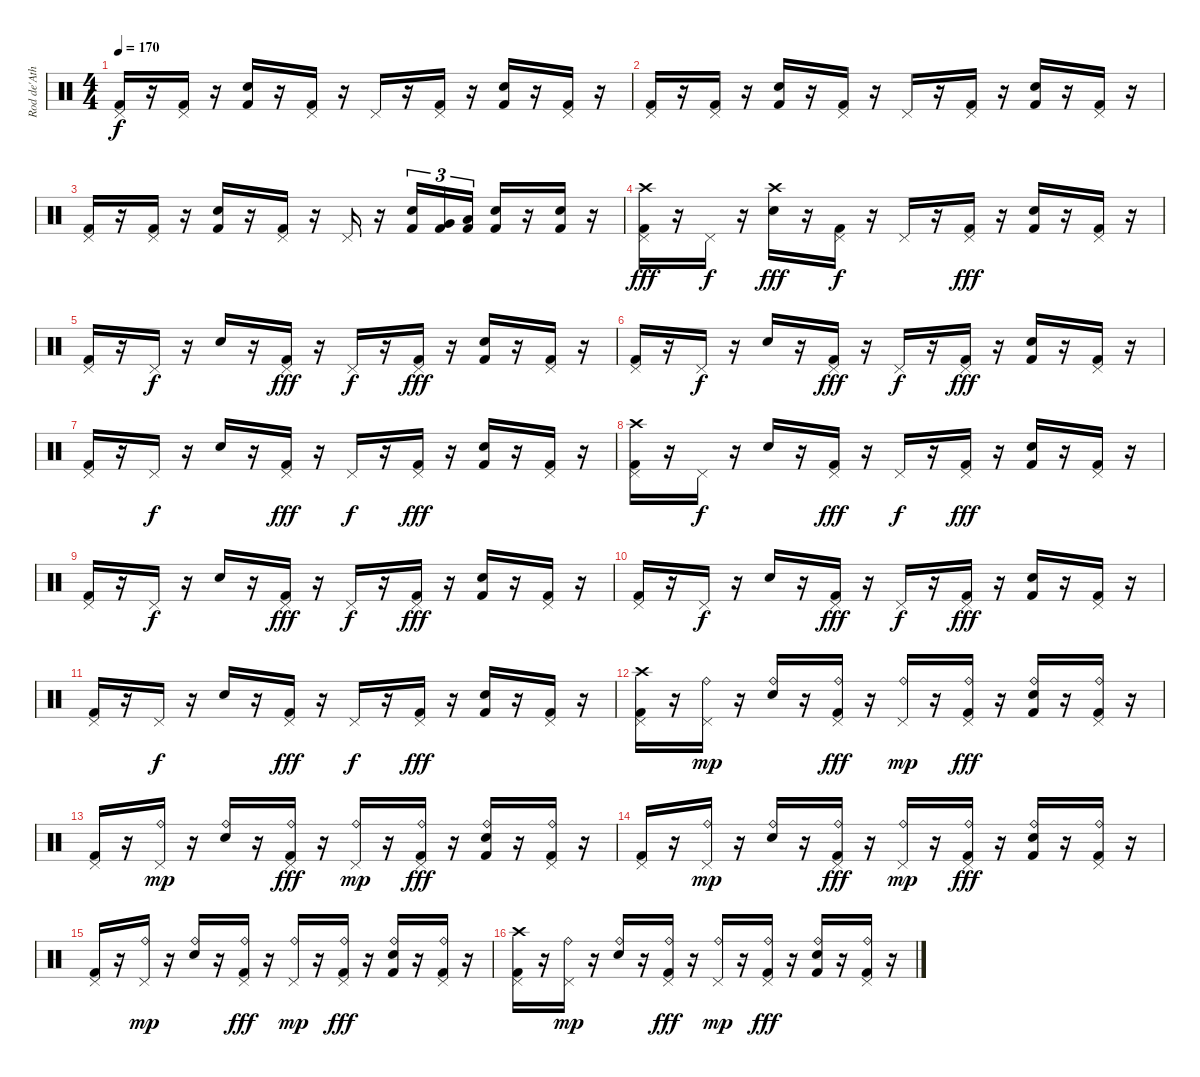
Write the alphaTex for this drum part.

\track ("Rod de'Ath" "Rod de'Ath") {instrument percussion}
\staff {score}
\articulation defaults
\ts (4 4)
\tempo 170
\clef neutral
\ks c
("Pedal Hi-Hat (hit)" "Kick (hit) 2").16{dy f} r.16 ("Pedal Hi-Hat (hit)" "Kick (hit) 2").16 r.16 ("Snare (hit) 2" "Kick (hit) 2").16 r.16 ("Pedal Hi-Hat (hit)" "Kick (hit) 2").16 r.16 "Pedal Hi-Hat (hit)".16 r.16 ("Pedal Hi-Hat (hit)" "Kick (hit) 2").16 r.16 ("Electric Snare (hit)" "Kick (hit) 2").16 r.16 ("Pedal Hi-Hat (hit)" "Kick (hit) 2").16 r.16 |
("Pedal Hi-Hat (hit)" "Kick (hit) 2").16 r.16 ("Pedal Hi-Hat (hit)" "Kick (hit) 2").16 r.16 ("Snare (hit) 2" "Kick (hit) 2").16 r.16 ("Pedal Hi-Hat (hit)" "Kick (hit) 2").16 r.16 "Pedal Hi-Hat (hit)".16 r.16 ("Pedal Hi-Hat (hit)" "Kick (hit) 2").16 r.16 ("Electric Snare (hit)" "Kick (hit) 2").16 r.16 ("Pedal Hi-Hat (hit)" "Kick (hit) 2").16 r.16 |
("Pedal Hi-Hat (hit)" "Kick (hit) 2").16 r.16 ("Pedal Hi-Hat (hit)" "Kick (hit) 2").16 r.16 ("Snare (hit) 2" "Kick (hit) 2").16 r.16 ("Pedal Hi-Hat (hit)" "Kick (hit) 2").16 r.16 "Pedal Hi-Hat (hit)".16 r.16 ("Snare (hit) 2" "Kick (hit) 2").16{tu (3 2)} ("Very Low Tom (hit)" "Kick (hit) 2").16{tu (3 2)} ("Low Tom (hit)" "Kick (hit) 2").16{tu (3 2)} ("Electric Snare (hit)" "Kick (hit) 2").16 r.16 ("Electric Snare (hit)" "Kick (hit) 2").16 r.16 |
("Crash high (hit)" "Pedal Hi-Hat (hit)" "Kick (hit) 2").16{dy fff} r.16 "Pedal Hi-Hat (hit)".16{dy f} r.16 ("Crash high (hit)" "Snare (hit) 2").16{dy fff} r.16 ("Pedal Hi-Hat (hit)" "Kick (hit) 2").16{dy f} r.16 "Pedal Hi-Hat (hit)".16 r.16 ("Pedal Hi-Hat (hit)" "Kick (hit) 2").16{dy fff} r.16 ("Snare (hit) 2" "Kick (hit) 2").16 r.16 ("Pedal Hi-Hat (hit)" "Kick (hit) 2").16 r.16 |
("Pedal Hi-Hat (hit)" "Kick (hit) 2").16 r.16 "Pedal Hi-Hat (hit)".16{dy f} r.16 "Snare (hit) 2".16 r.16 ("Pedal Hi-Hat (hit)" "Kick (hit) 2").16{dy fff} r.16 "Pedal Hi-Hat (hit)".16{dy f} r.16 ("Pedal Hi-Hat (hit)" "Kick (hit) 2").16{dy fff} r.16 ("Electric Snare (hit)" "Kick (hit) 2").16 r.16 ("Pedal Hi-Hat (hit)" "Kick (hit) 2").16 r.16 |
("Pedal Hi-Hat (hit)" "Kick (hit) 2").16 r.16 "Pedal Hi-Hat (hit)".16{dy f} r.16 "Snare (hit) 2".16 r.16 ("Pedal Hi-Hat (hit)" "Kick (hit) 2").16{dy fff} r.16 "Pedal Hi-Hat (hit)".16{dy f} r.16 ("Pedal Hi-Hat (hit)" "Kick (hit) 2").16{dy fff} r.16 ("Electric Snare (hit)" "Kick (hit) 2").16 r.16 ("Pedal Hi-Hat (hit)" "Kick (hit) 2").16 r.16 |
("Pedal Hi-Hat (hit)" "Kick (hit) 2").16 r.16 "Pedal Hi-Hat (hit)".16{dy f} r.16 "Snare (hit) 2".16 r.16 ("Pedal Hi-Hat (hit)" "Kick (hit) 2").16{dy fff} r.16 "Pedal Hi-Hat (hit)".16{dy f} r.16 ("Pedal Hi-Hat (hit)" "Kick (hit) 2").16{dy fff} r.16 ("Electric Snare (hit)" "Kick (hit) 2").16 r.16 ("Pedal Hi-Hat (hit)" "Kick (hit) 2").16 r.16 |
("Crash high (hit)" "Pedal Hi-Hat (hit)" "Kick (hit) 2").16 r.16 "Pedal Hi-Hat (hit)".16{dy f} r.16 "Snare (hit) 2".16 r.16 ("Pedal Hi-Hat (hit)" "Kick (hit) 2").16{dy fff} r.16 "Pedal Hi-Hat (hit)".16{dy f} r.16 ("Pedal Hi-Hat (hit)" "Kick (hit) 2").16{dy fff} r.16 ("Electric Snare (hit)" "Kick (hit) 2").16 r.16 ("Pedal Hi-Hat (hit)" "Kick (hit) 2").16 r.16 |
("Pedal Hi-Hat (hit)" "Kick (hit) 2").16 r.16 "Pedal Hi-Hat (hit)".16{dy f} r.16 "Snare (hit) 2".16 r.16 ("Pedal Hi-Hat (hit)" "Kick (hit) 2").16{dy fff} r.16 "Pedal Hi-Hat (hit)".16{dy f} r.16 ("Pedal Hi-Hat (hit)" "Kick (hit) 2").16{dy fff} r.16 ("Electric Snare (hit)" "Kick (hit) 2").16 r.16 ("Pedal Hi-Hat (hit)" "Kick (hit) 2").16 r.16 |
("Pedal Hi-Hat (hit)" "Kick (hit) 2").16 r.16 "Pedal Hi-Hat (hit)".16{dy f} r.16 "Snare (hit) 2".16 r.16 ("Pedal Hi-Hat (hit)" "Kick (hit) 2").16{dy fff} r.16 "Pedal Hi-Hat (hit)".16{dy f} r.16 ("Pedal Hi-Hat (hit)" "Kick (hit) 2").16{dy fff} r.16 ("Electric Snare (hit)" "Kick (hit) 2").16 r.16 ("Pedal Hi-Hat (hit)" "Kick (hit) 2").16 r.16 |
("Pedal Hi-Hat (hit)" "Kick (hit) 2").16 r.16 "Pedal Hi-Hat (hit)".16{dy f} r.16 "Snare (hit) 2".16 r.16 ("Pedal Hi-Hat (hit)" "Kick (hit) 2").16{dy fff} r.16 "Pedal Hi-Hat (hit)".16{dy f} r.16 ("Pedal Hi-Hat (hit)" "Kick (hit) 2").16{dy fff} r.16 ("Electric Snare (hit)" "Kick (hit) 2").16 r.16 ("Pedal Hi-Hat (hit)" "Kick (hit) 2").16 r.16 |
("Crash high (hit)" "Pedal Hi-Hat (hit)" "Kick (hit) 2").16 r.16 ("Ride (bell)" "Pedal Hi-Hat (hit)").16{dy mp} r.16 ("Ride (bell)" "Snare (hit) 2").16 r.16 ("Ride (bell)" "Pedal Hi-Hat (hit)" "Kick (hit) 2").16{dy fff} r.16 ("Ride (bell)" "Pedal Hi-Hat (hit)").16{dy mp} r.16 ("Ride (bell)" "Pedal Hi-Hat (hit)" "Kick (hit) 2").16{dy fff} r.16 ("Ride (bell)" "Electric Snare (hit)" "Kick (hit) 2").16 r.16 ("Ride (bell)" "Pedal Hi-Hat (hit)" "Kick (hit) 2").16 r.16 |
("Pedal Hi-Hat (hit)" "Kick (hit) 2").16 r.16 ("Ride (bell)" "Pedal Hi-Hat (hit)").16{dy mp} r.16 ("Ride (bell)" "Snare (hit) 2").16 r.16 ("Ride (bell)" "Pedal Hi-Hat (hit)" "Kick (hit) 2").16{dy fff} r.16 ("Ride (bell)" "Pedal Hi-Hat (hit)").16{dy mp} r.16 ("Ride (bell)" "Pedal Hi-Hat (hit)" "Kick (hit) 2").16{dy fff} r.16 ("Ride (bell)" "Electric Snare (hit)" "Kick (hit) 2").16 r.16 ("Ride (bell)" "Pedal Hi-Hat (hit)" "Kick (hit) 2").16 r.16 |
("Pedal Hi-Hat (hit)" "Kick (hit) 2").16 r.16 ("Ride (bell)" "Pedal Hi-Hat (hit)").16{dy mp} r.16 ("Ride (bell)" "Snare (hit) 2").16 r.16 ("Ride (bell)" "Pedal Hi-Hat (hit)" "Kick (hit) 2").16{dy fff} r.16 ("Ride (bell)" "Pedal Hi-Hat (hit)").16{dy mp} r.16 ("Ride (bell)" "Pedal Hi-Hat (hit)" "Kick (hit) 2").16{dy fff} r.16 ("Ride (bell)" "Electric Snare (hit)" "Kick (hit) 2").16 r.16 ("Ride (bell)" "Pedal Hi-Hat (hit)" "Kick (hit) 2").16 r.16 |
("Pedal Hi-Hat (hit)" "Kick (hit) 2").16 r.16 ("Ride (bell)" "Pedal Hi-Hat (hit)").16{dy mp} r.16 ("Ride (bell)" "Snare (hit) 2").16 r.16 ("Ride (bell)" "Pedal Hi-Hat (hit)" "Kick (hit) 2").16{dy fff} r.16 ("Ride (bell)" "Pedal Hi-Hat (hit)").16{dy mp} r.16 ("Ride (bell)" "Pedal Hi-Hat (hit)" "Kick (hit) 2").16{dy fff} r.16 ("Ride (bell)" "Electric Snare (hit)" "Kick (hit) 2").16 r.16 ("Ride (bell)" "Pedal Hi-Hat (hit)" "Kick (hit) 2").16 r.16 |
("Crash high (hit)" "Pedal Hi-Hat (hit)" "Kick (hit) 2").16 r.16 ("Ride (bell)" "Pedal Hi-Hat (hit)").16{dy mp} r.16 ("Ride (bell)" "Snare (hit) 2").16 r.16 ("Ride (bell)" "Pedal Hi-Hat (hit)" "Kick (hit) 2").16{dy fff} r.16 ("Ride (bell)" "Pedal Hi-Hat (hit)").16{dy mp} r.16 ("Ride (bell)" "Pedal Hi-Hat (hit)" "Kick (hit) 2").16{dy fff} r.16 ("Ride (bell)" "Electric Snare (hit)" "Kick (hit) 2").16 r.16 ("Ride (bell)" "Pedal Hi-Hat (hit)" "Kick (hit) 2").16 r.16
